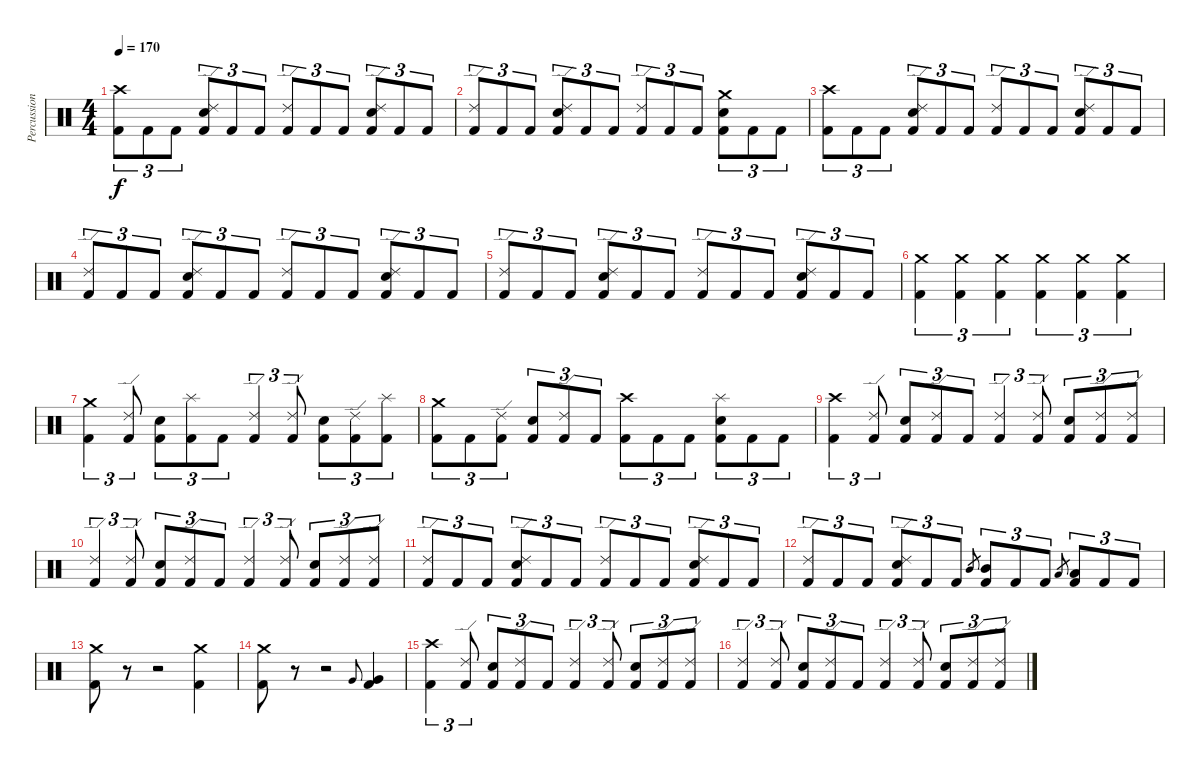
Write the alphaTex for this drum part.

\track ("Percussion" "Percussion") {instrument percussion}
\staff {score}
\articulation defaults
\ts (4 4)
\tempo 170
\clef neutral
\ks c
("Crash high (hit)" "Kick (hit) 2").8{tu (3 2) dy f} "Kick (hit) 2".8{tu (3 2)} "Kick (hit) 2".8{tu (3 2)} ("Ride (edge) 2" "Snare (hit) 2" "Kick (hit) 2").8{tu (3 2)} "Kick (hit) 2".8{tu (3 2)} "Kick (hit) 2".8{tu (3 2)} ("Ride (edge) 2" "Kick (hit) 2").8{tu (3 2)} "Kick (hit) 2".8{tu (3 2)} "Kick (hit) 2".8{tu (3 2)} ("Ride (edge) 2" "Snare (hit) 2" "Kick (hit) 2").8{tu (3 2)} "Kick (hit) 2".8{tu (3 2)} "Kick (hit) 2".8{tu (3 2)} |
("Ride (edge) 2" "Kick (hit) 2").8{tu (3 2)} "Kick (hit) 2".8{tu (3 2)} "Kick (hit) 2".8{tu (3 2)} ("Ride (edge) 2" "Snare (hit) 2" "Kick (hit) 2").8{tu (3 2)} "Kick (hit) 2".8{tu (3 2)} "Kick (hit) 2".8{tu (3 2)} ("Ride (edge) 2" "Kick (hit) 2").8{tu (3 2)} "Kick (hit) 2".8{tu (3 2)} "Kick (hit) 2".8{tu (3 2)} ("Crash medium (hit)" "Snare (hit) 2" "Kick (hit) 2").8{tu (3 2)} "Kick (hit) 2".8{tu (3 2)} "Kick (hit) 2".8{tu (3 2)} |
("Crash high (hit)" "Kick (hit) 2").8{tu (3 2)} "Kick (hit) 2".8{tu (3 2)} "Kick (hit) 2".8{tu (3 2)} ("Ride (edge) 2" "Snare (hit) 2" "Kick (hit) 2").8{tu (3 2)} "Kick (hit) 2".8{tu (3 2)} "Kick (hit) 2".8{tu (3 2)} ("Ride (edge) 2" "Kick (hit) 2").8{tu (3 2)} "Kick (hit) 2".8{tu (3 2)} "Kick (hit) 2".8{tu (3 2)} ("Ride (edge) 2" "Snare (hit) 2" "Kick (hit) 2").8{tu (3 2)} "Kick (hit) 2".8{tu (3 2)} "Kick (hit) 2".8{tu (3 2)} |
("Ride (edge) 2" "Kick (hit) 2").8{tu (3 2)} "Kick (hit) 2".8{tu (3 2)} "Kick (hit) 2".8{tu (3 2)} ("Ride (edge) 2" "Snare (hit) 2" "Kick (hit) 2").8{tu (3 2)} "Kick (hit) 2".8{tu (3 2)} "Kick (hit) 2".8{tu (3 2)} ("Ride (edge) 2" "Kick (hit) 2").8{tu (3 2)} "Kick (hit) 2".8{tu (3 2)} "Kick (hit) 2".8{tu (3 2)} ("Ride (edge) 2" "Snare (hit) 2" "Kick (hit) 2").8{tu (3 2)} "Kick (hit) 2".8{tu (3 2)} "Kick (hit) 2".8{tu (3 2)} |
("Ride (edge) 2" "Kick (hit) 2").8{tu (3 2)} "Kick (hit) 2".8{tu (3 2)} "Kick (hit) 2".8{tu (3 2)} ("Ride (edge) 2" "Snare (hit) 2" "Kick (hit) 2").8{tu (3 2)} "Kick (hit) 2".8{tu (3 2)} "Kick (hit) 2".8{tu (3 2)} ("Ride (edge) 2" "Kick (hit) 2").8{tu (3 2)} "Kick (hit) 2".8{tu (3 2)} "Kick (hit) 2".8{tu (3 2)} ("Ride (edge) 2" "Snare (hit) 2" "Kick (hit) 2").8{tu (3 2)} "Kick (hit) 2".8{tu (3 2)} "Kick (hit) 2".8{tu (3 2)} |
("Crash medium (hit)" "Kick (hit) 2").4{tu (3 2)} ("Crash medium (hit)" "Kick (hit) 2").4{tu (3 2)} ("Crash medium (hit)" "Kick (hit) 2").4{tu (3 2)} ("Crash medium (hit)" "Kick (hit) 2").4{tu (3 2)} ("Crash medium (hit)" "Kick (hit) 2").4{tu (3 2)} ("Crash medium (hit)" "Kick (hit) 2").4{tu (3 2)} |
("Crash medium (hit)" "Kick (hit) 2").4{tu (3 2)} ("Ride (edge) 2" "Kick (hit) 2").8{tu (3 2)} ("Snare (hit) 2" "Kick (hit) 2").8{tu (3 2)} ("Splash (hit)" "Kick (hit) 2").8{tu (3 2)} "Kick (hit) 2".8{tu (3 2)} ("Ride (edge) 2" "Kick (hit) 2").4{tu (3 2)} ("Ride (edge) 2" "Kick (hit) 2").8{tu (3 2)} ("Snare (hit) 2" "Kick (hit) 2").8{tu (3 2)} ("Ride (edge) 2" "Kick (hit) 2").8{tu (3 2)} ("Splash (hit)" "Kick (hit) 2").8{tu (3 2)} |
("Crash medium (hit)" "Kick (hit) 2").8{tu (3 2)} "Kick (hit) 2".8{tu (3 2)} ("Ride (edge) 2" "Kick (hit) 2").8{tu (3 2)} ("Snare (hit) 2" "Kick (hit) 2").8{tu (3 2)} ("Ride (edge) 2" "Kick (hit) 2").8{tu (3 2)} "Kick (hit) 2".8{tu (3 2)} ("Crash high (hit)" "Kick (hit) 2").8{tu (3 2)} "Kick (hit) 2".8{tu (3 2)} "Kick (hit) 2".8{tu (3 2)} ("Splash (hit)" "Snare (hit) 2" "Kick (hit) 2").8{tu (3 2)} "Kick (hit) 2".8{tu (3 2)} "Kick (hit) 2".8{tu (3 2)} |
("Crash high (hit)" "Kick (hit) 2").4{tu (3 2)} ("Ride (edge) 2" "Kick (hit) 2").8{tu (3 2)} ("Snare (hit) 2" "Kick (hit) 2").8{tu (3 2)} ("Ride (edge) 2" "Kick (hit) 2").8{tu (3 2)} "Kick (hit) 2".8{tu (3 2)} ("Ride (edge) 2" "Kick (hit) 2").4{tu (3 2)} ("Ride (edge) 2" "Kick (hit) 2").8{tu (3 2)} ("Snare (hit) 2" "Kick (hit) 2").8{tu (3 2)} ("Ride (edge) 2" "Kick (hit) 2").8{tu (3 2)} ("Ride (edge) 2" "Kick (hit) 2").8{tu (3 2)} |
("Ride (edge) 2" "Kick (hit) 2").4{tu (3 2)} ("Ride (edge) 2" "Kick (hit) 2").8{tu (3 2)} ("Snare (hit) 2" "Kick (hit) 2").8{tu (3 2)} ("Ride (edge) 2" "Kick (hit) 2").8{tu (3 2)} "Kick (hit) 2".8{tu (3 2)} ("Ride (edge) 2" "Kick (hit) 2").4{tu (3 2)} ("Ride (edge) 2" "Kick (hit) 2").8{tu (3 2)} ("Snare (hit) 2" "Kick (hit) 2").8{tu (3 2)} ("Ride (edge) 2" "Kick (hit) 2").8{tu (3 2)} ("Ride (edge) 2" "Kick (hit) 2").8{tu (3 2)} |
("Ride (edge) 2" "Kick (hit) 2").8{tu (3 2)} "Kick (hit) 2".8{tu (3 2)} "Kick (hit) 2".8{tu (3 2)} ("Ride (edge) 2" "Snare (hit) 2" "Kick (hit) 2").8{tu (3 2)} "Kick (hit) 2".8{tu (3 2)} "Kick (hit) 2".8{tu (3 2)} ("Ride (edge) 2" "Kick (hit) 2").8{tu (3 2)} "Kick (hit) 2".8{tu (3 2)} "Kick (hit) 2".8{tu (3 2)} ("Ride (edge) 2" "Snare (hit) 2" "Kick (hit) 2").8{tu (3 2)} "Kick (hit) 2".8{tu (3 2)} "Kick (hit) 2".8{tu (3 2)} |
("Ride (edge) 2" "Kick (hit) 2").8{tu (3 2)} "Kick (hit) 2".8{tu (3 2)} "Kick (hit) 2".8{tu (3 2)} ("Ride (edge) 2" "Snare (hit) 2" "Kick (hit) 2").8{tu (3 2)} "Kick (hit) 2".8{tu (3 2)} "Kick (hit) 2".8{tu (3 2)} "Mid Tom (hit)".8{gr} ("Mid Tom (hit)" "Kick (hit) 2").8{tu (3 2)} "Kick (hit) 2".8{tu (3 2)} "Kick (hit) 2".8{tu (3 2)} "Low Tom (hit)".8{gr} ("Low Tom (hit)" "Kick (hit) 2").8{tu (3 2)} "Kick (hit) 2".8{tu (3 2)} "Kick (hit) 2".8{tu (3 2)} |
("Crash medium (hit)" "Kick (hit) 2").8 r.8 r.2 ("Crash medium (hit)" "Kick (hit) 2").4 |
("Crash medium (hit)" "Kick (hit) 2").8 r.8 r.2 "Very Low Tom (hit)".8{gr onbeat} ("Very Low Tom (hit)" "Kick (hit) 2").4 |
("Crash high (hit)" "Kick (hit) 2").4{tu (3 2)} ("Ride (edge) 2" "Kick (hit) 2").8{tu (3 2)} ("Snare (hit) 2" "Kick (hit) 2").8{tu (3 2)} ("Ride (edge) 2" "Kick (hit) 2").8{tu (3 2)} "Kick (hit) 2".8{tu (3 2)} ("Ride (edge) 2" "Kick (hit) 2").4{tu (3 2)} ("Ride (edge) 2" "Kick (hit) 2").8{tu (3 2)} ("Snare (hit) 2" "Kick (hit) 2").8{tu (3 2)} ("Ride (edge) 2" "Kick (hit) 2").8{tu (3 2)} ("Ride (edge) 2" "Kick (hit) 2").8{tu (3 2)} |
("Ride (edge) 2" "Kick (hit) 2").4{tu (3 2)} ("Ride (edge) 2" "Kick (hit) 2").8{tu (3 2)} ("Snare (hit) 2" "Kick (hit) 2").8{tu (3 2)} ("Ride (edge) 2" "Kick (hit) 2").8{tu (3 2)} "Kick (hit) 2".8{tu (3 2)} ("Ride (edge) 2" "Kick (hit) 2").4{tu (3 2)} ("Ride (edge) 2" "Kick (hit) 2").8{tu (3 2)} ("Snare (hit) 2" "Kick (hit) 2").8{tu (3 2)} ("Ride (edge) 2" "Kick (hit) 2").8{tu (3 2)} ("Ride (edge) 2" "Kick (hit) 2").8{tu (3 2)}
